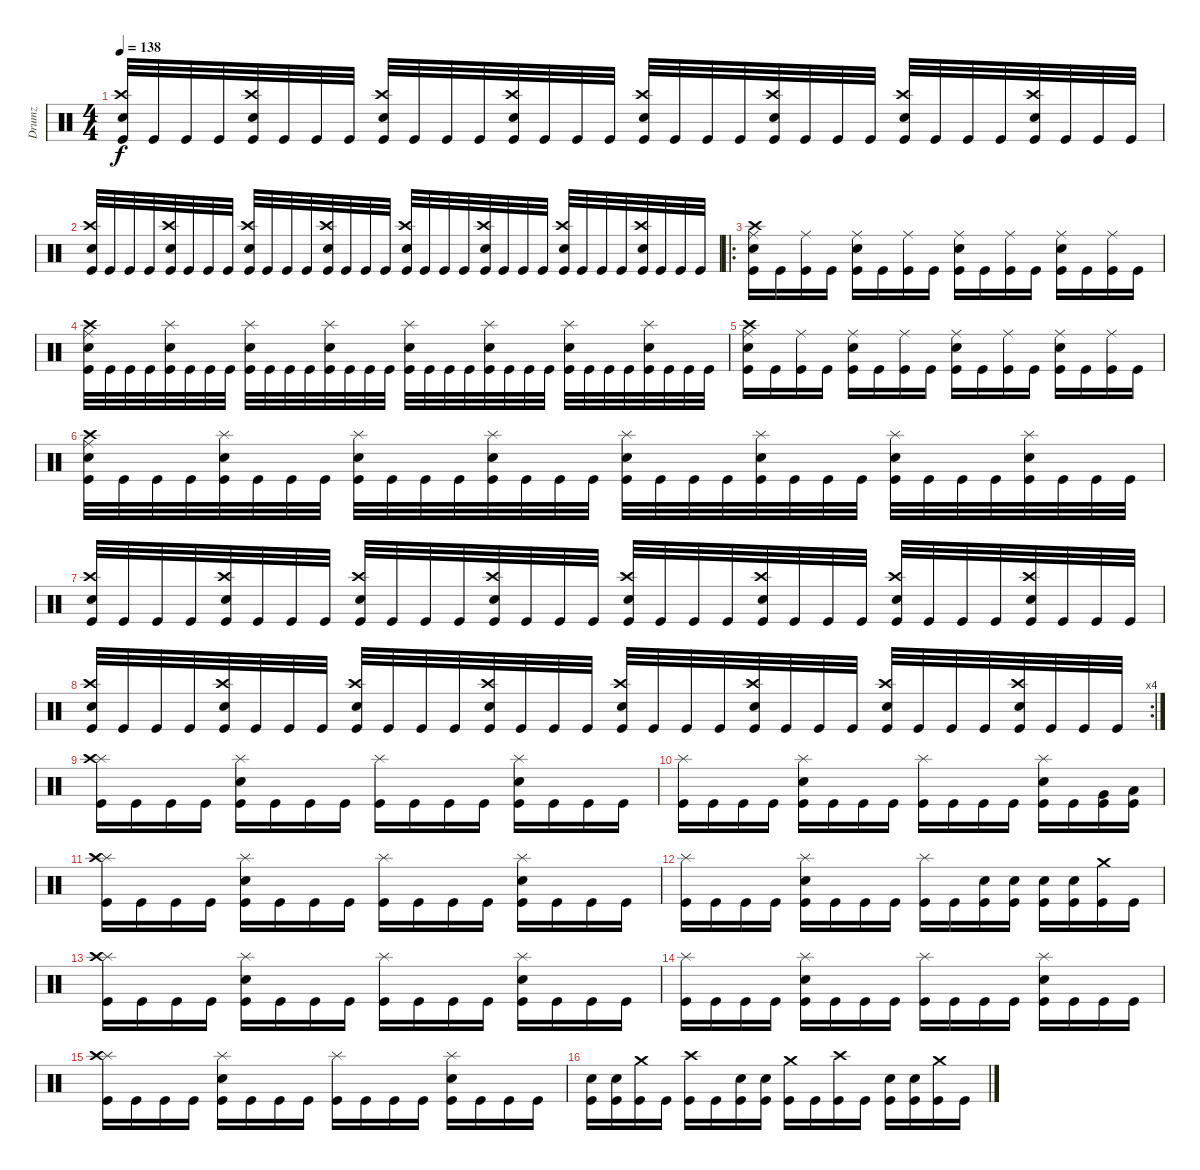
\track ("Drumz" "Drumz") {instrument percussion}
\staff {score}
\articulation defaults
\ts (4 4)
\tempo 138
\clef neutral
\ks c
("Kick (hit)" "Crash high (hit)" "Snare (hit) 2").32{dy f} "Kick (hit)".32 "Kick (hit)".32 "Kick (hit)".32 ("Kick (hit)" "Crash high (hit)" "Snare (hit) 2").32 "Kick (hit)".32 "Kick (hit)".32 "Kick (hit)".32 ("Kick (hit)" "Crash high (hit)" "Snare (hit) 2").32 "Kick (hit)".32 "Kick (hit)".32 "Kick (hit)".32 ("Kick (hit)" "Crash high (hit)" "Snare (hit) 2").32 "Kick (hit)".32 "Kick (hit)".32 "Kick (hit)".32 ("Kick (hit)" "Crash high (hit)" "Snare (hit) 2").32 "Kick (hit)".32 "Kick (hit)".32 "Kick (hit)".32 ("Kick (hit)" "Crash high (hit)" "Snare (hit) 2").32 "Kick (hit)".32 "Kick (hit)".32 "Kick (hit)".32 ("Kick (hit)" "Crash high (hit)" "Snare (hit) 2").32 "Kick (hit)".32 "Kick (hit)".32 "Kick (hit)".32 ("Kick (hit)" "Crash high (hit)" "Snare (hit) 2").32 "Kick (hit)".32 "Kick (hit)".32 "Kick (hit)".32 |
("Kick (hit)" "Crash high (hit)" "Snare (hit) 2").32 "Kick (hit)".32 "Kick (hit)".32 "Kick (hit)".32 ("Kick (hit)" "Crash high (hit)" "Snare (hit) 2").32 "Kick (hit)".32 "Kick (hit)".32 "Kick (hit)".32 ("Kick (hit)" "Crash high (hit)" "Snare (hit) 2").32 "Kick (hit)".32 "Kick (hit)".32 "Kick (hit)".32 ("Kick (hit)" "Crash high (hit)" "Snare (hit) 2").32 "Kick (hit)".32 "Kick (hit)".32 "Kick (hit)".32 ("Kick (hit)" "Crash high (hit)" "Snare (hit) 2").32 "Kick (hit)".32 "Kick (hit)".32 "Kick (hit)".32 ("Kick (hit)" "Crash high (hit)" "Snare (hit) 2").32 "Kick (hit)".32 "Kick (hit)".32 "Kick (hit)".32 ("Kick (hit)" "Crash high (hit)" "Snare (hit) 2").32 "Kick (hit)".32 "Kick (hit)".32 "Kick (hit)".32 ("Kick (hit)" "Crash high (hit)" "Snare (hit) 2").32 "Kick (hit)".32 "Kick (hit)".32 "Kick (hit)".32 |
\ro
("Kick (hit)" "Crash high (hit)" "Ride (middle)" "Snare (hit) 2").16 "Kick (hit)".16 ("Kick (hit)" "Ride (middle)").16 "Kick (hit)".16 ("Kick (hit)" "Ride (middle)" "Snare (hit) 2").16 "Kick (hit)".16 ("Kick (hit)" "Ride (middle)").16 "Kick (hit)".16 ("Kick (hit)" "Ride (middle)" "Snare (hit) 2").16 "Kick (hit)".16 ("Kick (hit)" "Ride (middle)").16 "Kick (hit)".16 ("Kick (hit)" "Ride (middle)" "Snare (hit) 2").16 "Kick (hit)".16 ("Kick (hit)" "Ride (middle)").16 "Kick (hit)".16 |
("Kick (hit)" "Crash high (hit)" "Ride (middle)" "Snare (hit) 2").32 "Kick (hit)".32 "Kick (hit)".32 "Kick (hit)".32 ("Kick (hit)" "Splash (hit)" "Snare (hit) 2").32 "Kick (hit)".32 "Kick (hit)".32 "Kick (hit)".32 ("Kick (hit)" "Splash (hit)" "Snare (hit) 2").32 "Kick (hit)".32 "Kick (hit)".32 "Kick (hit)".32 ("Kick (hit)" "Splash (hit)" "Snare (hit) 2").32 "Kick (hit)".32 "Kick (hit)".32 "Kick (hit)".32 ("Kick (hit)" "Splash (hit)" "Snare (hit) 2").32 "Kick (hit)".32 "Kick (hit)".32 "Kick (hit)".32 ("Kick (hit)" "Splash (hit)" "Snare (hit) 2").32 "Kick (hit)".32 "Kick (hit)".32 "Kick (hit)".32 ("Kick (hit)" "Splash (hit)" "Snare (hit) 2").32 "Kick (hit)".32 "Kick (hit)".32 "Kick (hit)".32 ("Kick (hit)" "Splash (hit)" "Snare (hit) 2").32 "Kick (hit)".32 "Kick (hit)".32 "Kick (hit)".32 |
("Kick (hit)" "Crash high (hit)" "Ride (middle)" "Snare (hit) 2").16 "Kick (hit)".16 ("Kick (hit)" "Ride (middle)").16 "Kick (hit)".16 ("Kick (hit)" "Ride (middle)" "Snare (hit) 2").16 "Kick (hit)".16 ("Kick (hit)" "Ride (middle)").16 "Kick (hit)".16 ("Kick (hit)" "Ride (middle)" "Snare (hit) 2").16 "Kick (hit)".16 ("Kick (hit)" "Ride (middle)").16 "Kick (hit)".16 ("Kick (hit)" "Ride (middle)" "Snare (hit) 2").16 "Kick (hit)".16 ("Kick (hit)" "Ride (middle)").16 "Kick (hit)".16 |
("Kick (hit)" "Crash high (hit)" "Ride (middle)" "Snare (hit) 2").32 "Kick (hit)".32 "Kick (hit)".32 "Kick (hit)".32 ("Kick (hit)" "Splash (hit)" "Snare (hit) 2").32 "Kick (hit)".32 "Kick (hit)".32 "Kick (hit)".32 ("Kick (hit)" "Splash (hit)" "Snare (hit) 2").32 "Kick (hit)".32 "Kick (hit)".32 "Kick (hit)".32 ("Kick (hit)" "Splash (hit)" "Snare (hit) 2").32 "Kick (hit)".32 "Kick (hit)".32 "Kick (hit)".32 ("Kick (hit)" "Splash (hit)" "Snare (hit) 2").32 "Kick (hit)".32 "Kick (hit)".32 "Kick (hit)".32 ("Kick (hit)" "Splash (hit)" "Snare (hit) 2").32 "Kick (hit)".32 "Kick (hit)".32 "Kick (hit)".32 ("Kick (hit)" "Splash (hit)" "Snare (hit) 2").32 "Kick (hit)".32 "Kick (hit)".32 "Kick (hit)".32 ("Kick (hit)" "Splash (hit)" "Snare (hit) 2").32 "Kick (hit)".32 "Kick (hit)".32 "Kick (hit)".32 |
("Kick (hit)" "Crash high (hit)" "Snare (hit) 2").32 "Kick (hit)".32 "Kick (hit)".32 "Kick (hit)".32 ("Kick (hit)" "Crash high (hit)" "Snare (hit) 2").32 "Kick (hit)".32 "Kick (hit)".32 "Kick (hit)".32 ("Kick (hit)" "Crash high (hit)" "Snare (hit) 2").32 "Kick (hit)".32 "Kick (hit)".32 "Kick (hit)".32 ("Kick (hit)" "Crash high (hit)" "Snare (hit) 2").32 "Kick (hit)".32 "Kick (hit)".32 "Kick (hit)".32 ("Kick (hit)" "Crash high (hit)" "Snare (hit) 2").32 "Kick (hit)".32 "Kick (hit)".32 "Kick (hit)".32 ("Kick (hit)" "Crash high (hit)" "Snare (hit) 2").32 "Kick (hit)".32 "Kick (hit)".32 "Kick (hit)".32 ("Kick (hit)" "Crash high (hit)" "Snare (hit) 2").32 "Kick (hit)".32 "Kick (hit)".32 "Kick (hit)".32 ("Kick (hit)" "Crash high (hit)" "Snare (hit) 2").32 "Kick (hit)".32 "Kick (hit)".32 "Kick (hit)".32 |
\rc 4
("Kick (hit)" "Crash high (hit)" "Snare (hit) 2").32 "Kick (hit)".32 "Kick (hit)".32 "Kick (hit)".32 ("Kick (hit)" "Crash high (hit)" "Snare (hit) 2").32 "Kick (hit)".32 "Kick (hit)".32 "Kick (hit)".32 ("Kick (hit)" "Crash high (hit)" "Snare (hit) 2").32 "Kick (hit)".32 "Kick (hit)".32 "Kick (hit)".32 ("Kick (hit)" "Crash high (hit)" "Snare (hit) 2").32 "Kick (hit)".32 "Kick (hit)".32 "Kick (hit)".32 ("Kick (hit)" "Crash high (hit)" "Snare (hit) 2").32 "Kick (hit)".32 "Kick (hit)".32 "Kick (hit)".32 ("Kick (hit)" "Crash high (hit)" "Snare (hit) 2").32 "Kick (hit)".32 "Kick (hit)".32 "Kick (hit)".32 ("Kick (hit)" "Crash high (hit)" "Snare (hit) 2").32 "Kick (hit)".32 "Kick (hit)".32 "Kick (hit)".32 ("Kick (hit)" "Crash high (hit)" "Snare (hit) 2").32 "Kick (hit)".32 "Kick (hit)".32 "Kick (hit)".32 |
("Kick (hit)" "Splash (hit)" "Crash high (hit)").16 "Kick (hit)".16 "Kick (hit)".16 "Kick (hit)".16 ("Kick (hit)" "Splash (hit)" "Snare (hit) 2").16 "Kick (hit)".16 "Kick (hit)".16 "Kick (hit)".16 ("Kick (hit)" "Splash (hit)").16 "Kick (hit)".16 "Kick (hit)".16 "Kick (hit)".16 ("Kick (hit)" "Splash (hit)" "Snare (hit) 2").16 "Kick (hit)".16 "Kick (hit)".16 "Kick (hit)".16 |
("Kick (hit)" "Splash (hit)").16 "Kick (hit)".16 "Kick (hit)".16 "Kick (hit)".16 ("Kick (hit)" "Splash (hit)" "Snare (hit) 2").16 "Kick (hit)".16 "Kick (hit)".16 "Kick (hit)".16 ("Kick (hit)" "Splash (hit)").16 "Kick (hit)".16 "Kick (hit)".16 "Kick (hit)".16 ("Kick (hit)" "Splash (hit)" "Snare (hit) 2").16 "Kick (hit)".16 ("Kick (hit)" "Very Low Tom (hit)").16 ("Kick (hit)" "Low Floor Tom (hit)").16 |
("Kick (hit)" "Splash (hit)" "Crash high (hit)").16 "Kick (hit)".16 "Kick (hit)".16 "Kick (hit)".16 ("Kick (hit)" "Splash (hit)" "Snare (hit) 2").16 "Kick (hit)".16 "Kick (hit)".16 "Kick (hit)".16 ("Kick (hit)" "Splash (hit)").16 "Kick (hit)".16 "Kick (hit)".16 "Kick (hit)".16 ("Kick (hit)" "Splash (hit)" "Snare (hit) 2").16 "Kick (hit)".16 "Kick (hit)".16 "Kick (hit)".16 |
("Kick (hit)" "Splash (hit)").16 "Kick (hit)".16 "Kick (hit)".16 "Kick (hit)".16 ("Kick (hit)" "Splash (hit)" "Snare (hit) 2").16 "Kick (hit)".16 "Kick (hit)".16 "Kick (hit)".16 ("Kick (hit)" "Splash (hit)").16 "Kick (hit)".16 ("Kick (hit)" "Snare (hit) 2").16 ("Kick (hit)" "Snare (hit) 2").16 ("Kick (hit)" "Snare (hit) 2").16 ("Kick (hit)" "Snare (hit) 2").16 ("Kick (hit)" "Crash medium (hit)").16 "Kick (hit)".16 |
("Kick (hit)" "Splash (hit)" "Crash high (hit)").16 "Kick (hit)".16 "Kick (hit)".16 "Kick (hit)".16 ("Kick (hit)" "Splash (hit)" "Snare (hit) 2").16 "Kick (hit)".16 "Kick (hit)".16 "Kick (hit)".16 ("Kick (hit)" "Splash (hit)").16 "Kick (hit)".16 "Kick (hit)".16 "Kick (hit)".16 ("Kick (hit)" "Splash (hit)" "Snare (hit) 2").16 "Kick (hit)".16 "Kick (hit)".16 "Kick (hit)".16 |
("Kick (hit)" "Splash (hit)").16 "Kick (hit)".16 "Kick (hit)".16 "Kick (hit)".16 ("Kick (hit)" "Splash (hit)" "Snare (hit) 2").16 "Kick (hit)".16 "Kick (hit)".16 "Kick (hit)".16 ("Kick (hit)" "Splash (hit)").16 "Kick (hit)".16 "Kick (hit)".16 "Kick (hit)".16 ("Kick (hit)" "Splash (hit)" "Snare (hit) 2").16 "Kick (hit)".16 "Kick (hit)".16 "Kick (hit)".16 |
("Kick (hit)" "Splash (hit)" "Crash high (hit)").16 "Kick (hit)".16 "Kick (hit)".16 "Kick (hit)".16 ("Kick (hit)" "Splash (hit)" "Snare (hit) 2").16 "Kick (hit)".16 "Kick (hit)".16 "Kick (hit)".16 ("Kick (hit)" "Splash (hit)").16 "Kick (hit)".16 "Kick (hit)".16 "Kick (hit)".16 ("Kick (hit)" "Splash (hit)" "Snare (hit) 2").16 "Kick (hit)".16 "Kick (hit)".16 "Kick (hit)".16 |
("Kick (hit)" "Snare (hit) 2").16 ("Kick (hit)" "Snare (hit) 2").16 ("Kick (hit)" "Crash medium (hit)").16 "Kick (hit)".16 ("Kick (hit)" "Crash high (hit)").16 "Kick (hit)".16 ("Kick (hit)" "Snare (hit) 2").16 ("Kick (hit)" "Snare (hit) 2").16 ("Kick (hit)" "Crash medium (hit)").16 "Kick (hit)".16 ("Kick (hit)" "Crash high (hit)").16 "Kick (hit)".16 ("Kick (hit)" "Snare (hit) 2").16 ("Kick (hit)" "Snare (hit) 2").16 ("Kick (hit)" "Crash medium (hit)").16 "Kick (hit)".16
